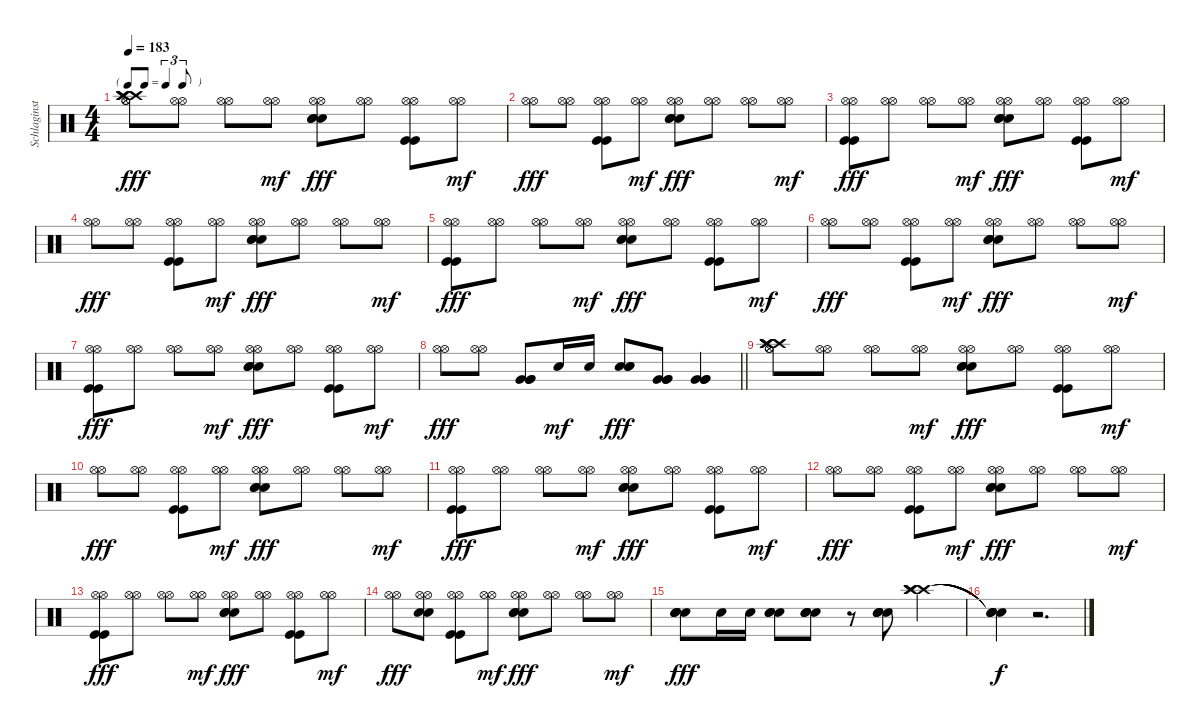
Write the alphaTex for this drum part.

\track ("Schlaginstrumente - Auswahl" "Schlaginst") {instrument percussion}
\staff {score}
\articulation defaults
\ts (4 4)
\tf triplet8th
\tempo 183
\clef neutral
\ks c
("Hi-Hat (open)" "Hi-Hat (open)" "Crash high (hit)" "Crash high (hit)" "Crash high (hit)" "Crash high (hit)").8{dy fff} ("Hi-Hat (open)" "Hi-Hat (open)").8 ("Hi-Hat (open)" "Hi-Hat (open)").8 ("Hi-Hat (open)" "Hi-Hat (open)").8{dy mf} ("Hi-Hat (open)" "Hi-Hat (open)" "Snare (hit) 2" "Snare (hit) 2" "Snare (hit) 2").8{dy fff} ("Hi-Hat (open)" "Hi-Hat (open)").8 ("Hi-Hat (open)" "Hi-Hat (open)" "Kick (hit)" "Kick (hit)").8 ("Hi-Hat (open)" "Hi-Hat (open)").8{dy mf} |
("Hi-Hat (open)" "Hi-Hat (open)").8{dy fff} ("Hi-Hat (open)" "Hi-Hat (open)").8 ("Hi-Hat (open)" "Hi-Hat (open)" "Kick (hit)" "Kick (hit)").8 ("Hi-Hat (open)" "Hi-Hat (open)").8{dy mf} ("Hi-Hat (open)" "Hi-Hat (open)" "Snare (hit) 2" "Snare (hit) 2" "Snare (hit) 2").8{dy fff} ("Hi-Hat (open)" "Hi-Hat (open)").8 ("Hi-Hat (open)" "Hi-Hat (open)").8 ("Hi-Hat (open)" "Hi-Hat (open)").8{dy mf} |
("Hi-Hat (open)" "Hi-Hat (open)" "Kick (hit)" "Kick (hit)").8{dy fff} ("Hi-Hat (open)" "Hi-Hat (open)").8 ("Hi-Hat (open)" "Hi-Hat (open)").8 ("Hi-Hat (open)" "Hi-Hat (open)").8{dy mf} ("Hi-Hat (open)" "Hi-Hat (open)" "Snare (hit) 2" "Snare (hit) 2" "Snare (hit) 2").8{dy fff} ("Hi-Hat (open)" "Hi-Hat (open)").8 ("Hi-Hat (open)" "Hi-Hat (open)" "Kick (hit)" "Kick (hit)").8 ("Hi-Hat (open)" "Hi-Hat (open)").8{dy mf} |
("Hi-Hat (open)" "Hi-Hat (open)").8{dy fff} ("Hi-Hat (open)" "Hi-Hat (open)").8 ("Hi-Hat (open)" "Hi-Hat (open)" "Kick (hit)" "Kick (hit)").8 ("Hi-Hat (open)" "Hi-Hat (open)").8{dy mf} ("Hi-Hat (open)" "Hi-Hat (open)" "Snare (hit) 2" "Snare (hit) 2" "Snare (hit) 2").8{dy fff} ("Hi-Hat (open)" "Hi-Hat (open)").8 ("Hi-Hat (open)" "Hi-Hat (open)").8 ("Hi-Hat (open)" "Hi-Hat (open)").8{dy mf} |
("Hi-Hat (open)" "Hi-Hat (open)" "Kick (hit)" "Kick (hit)").8{dy fff} ("Hi-Hat (open)" "Hi-Hat (open)").8 ("Hi-Hat (open)" "Hi-Hat (open)").8 ("Hi-Hat (open)" "Hi-Hat (open)").8{dy mf} ("Hi-Hat (open)" "Hi-Hat (open)" "Snare (hit) 2" "Snare (hit) 2" "Snare (hit) 2").8{dy fff} ("Hi-Hat (open)" "Hi-Hat (open)").8 ("Hi-Hat (open)" "Hi-Hat (open)" "Kick (hit)" "Kick (hit)").8 ("Hi-Hat (open)" "Hi-Hat (open)").8{dy mf} |
("Hi-Hat (open)" "Hi-Hat (open)").8{dy fff} ("Hi-Hat (open)" "Hi-Hat (open)").8 ("Hi-Hat (open)" "Hi-Hat (open)" "Kick (hit)" "Kick (hit)").8 ("Hi-Hat (open)" "Hi-Hat (open)").8{dy mf} ("Hi-Hat (open)" "Hi-Hat (open)" "Snare (hit) 2" "Snare (hit) 2" "Snare (hit) 2").8{dy fff} ("Hi-Hat (open)" "Hi-Hat (open)").8 ("Hi-Hat (open)" "Hi-Hat (open)").8 ("Hi-Hat (open)" "Hi-Hat (open)").8{dy mf} |
("Hi-Hat (open)" "Hi-Hat (open)" "Kick (hit)" "Kick (hit)").8{dy fff} ("Hi-Hat (open)" "Hi-Hat (open)").8 ("Hi-Hat (open)" "Hi-Hat (open)").8 ("Hi-Hat (open)" "Hi-Hat (open)").8{dy mf} ("Hi-Hat (open)" "Hi-Hat (open)" "Snare (hit) 2" "Snare (hit) 2" "Snare (hit) 2").8{dy fff} ("Hi-Hat (open)" "Hi-Hat (open)").8 ("Hi-Hat (open)" "Hi-Hat (open)" "Kick (hit)" "Kick (hit)").8 ("Hi-Hat (open)" "Hi-Hat (open)").8{dy mf} |
\barLineRight lightlight
("Hi-Hat (open)" "Hi-Hat (open)").8{dy fff} ("Hi-Hat (open)" "Hi-Hat (open)").8 ("Very Low Tom (hit)" "Very Low Tom (hit)" "Very Low Tom (hit)").8 "Snare (hit) 2".16{dy mf} "Snare (hit) 2".16 ("Snare (hit) 2" "Snare (hit) 2" "Snare (hit) 2").8{dy fff} ("Very Low Tom (hit)" "Very Low Tom (hit)" "Very Low Tom (hit)").8 ("Very Low Tom (hit)" "Very Low Tom (hit)" "Very Low Tom (hit)").4 |
("Hi-Hat (open)" "Hi-Hat (open)" "Crash high (hit)" "Crash high (hit)" "Crash high (hit)" "Crash high (hit)").8 ("Hi-Hat (open)" "Hi-Hat (open)").8 ("Hi-Hat (open)" "Hi-Hat (open)").8 ("Hi-Hat (open)" "Hi-Hat (open)").8{dy mf} ("Hi-Hat (open)" "Hi-Hat (open)" "Snare (hit) 2" "Snare (hit) 2" "Snare (hit) 2").8{dy fff} ("Hi-Hat (open)" "Hi-Hat (open)").8 ("Hi-Hat (open)" "Hi-Hat (open)" "Kick (hit)" "Kick (hit)").8 ("Hi-Hat (open)" "Hi-Hat (open)").8{dy mf} |
("Hi-Hat (open)" "Hi-Hat (open)").8{dy fff} ("Hi-Hat (open)" "Hi-Hat (open)").8 ("Hi-Hat (open)" "Hi-Hat (open)" "Kick (hit)" "Kick (hit)").8 ("Hi-Hat (open)" "Hi-Hat (open)").8{dy mf} ("Hi-Hat (open)" "Hi-Hat (open)" "Snare (hit) 2" "Snare (hit) 2" "Snare (hit) 2").8{dy fff} ("Hi-Hat (open)" "Hi-Hat (open)").8 ("Hi-Hat (open)" "Hi-Hat (open)").8 ("Hi-Hat (open)" "Hi-Hat (open)").8{dy mf} |
("Hi-Hat (open)" "Hi-Hat (open)" "Kick (hit)" "Kick (hit)").8{dy fff} ("Hi-Hat (open)" "Hi-Hat (open)").8 ("Hi-Hat (open)" "Hi-Hat (open)").8 ("Hi-Hat (open)" "Hi-Hat (open)").8{dy mf} ("Hi-Hat (open)" "Hi-Hat (open)" "Snare (hit) 2" "Snare (hit) 2" "Snare (hit) 2").8{dy fff} ("Hi-Hat (open)" "Hi-Hat (open)").8 ("Hi-Hat (open)" "Hi-Hat (open)" "Kick (hit)" "Kick (hit)").8 ("Hi-Hat (open)" "Hi-Hat (open)").8{dy mf} |
("Hi-Hat (open)" "Hi-Hat (open)").8{dy fff} ("Hi-Hat (open)" "Hi-Hat (open)").8 ("Hi-Hat (open)" "Hi-Hat (open)" "Kick (hit)" "Kick (hit)").8 ("Hi-Hat (open)" "Hi-Hat (open)").8{dy mf} ("Hi-Hat (open)" "Hi-Hat (open)" "Snare (hit) 2" "Snare (hit) 2" "Snare (hit) 2").8{dy fff} ("Hi-Hat (open)" "Hi-Hat (open)").8 ("Hi-Hat (open)" "Hi-Hat (open)").8 ("Hi-Hat (open)" "Hi-Hat (open)").8{dy mf} |
("Hi-Hat (open)" "Hi-Hat (open)" "Kick (hit)" "Kick (hit)").8{dy fff} ("Hi-Hat (open)" "Hi-Hat (open)").8 ("Hi-Hat (open)" "Hi-Hat (open)").8 ("Hi-Hat (open)" "Hi-Hat (open)").8{dy mf} ("Hi-Hat (open)" "Hi-Hat (open)" "Snare (hit) 2" "Snare (hit) 2" "Snare (hit) 2").8{dy fff} ("Hi-Hat (open)" "Hi-Hat (open)").8 ("Hi-Hat (open)" "Hi-Hat (open)" "Kick (hit)" "Kick (hit)").8 ("Hi-Hat (open)" "Hi-Hat (open)").8{dy mf} |
("Hi-Hat (open)" "Hi-Hat (open)").8{dy fff} ("Hi-Hat (open)" "Hi-Hat (open)" "Snare (hit) 2" "Snare (hit) 2").8 ("Hi-Hat (open)" "Hi-Hat (open)" "Kick (hit)" "Kick (hit)").8 ("Hi-Hat (open)" "Hi-Hat (open)").8{dy mf} ("Hi-Hat (open)" "Hi-Hat (open)" "Snare (hit) 2" "Snare (hit) 2" "Snare (hit) 2").8{dy fff} ("Hi-Hat (open)" "Hi-Hat (open)").8 ("Hi-Hat (open)" "Hi-Hat (open)").8 ("Hi-Hat (open)" "Hi-Hat (open)").8{dy mf} |
("Snare (hit) 2" "Snare (hit) 2" "Snare (hit) 2" "Snare (hit) 2").8{dy fff} "Snare (hit) 2".16 "Snare (hit) 2".16 ("Snare (hit) 2" "Snare (hit) 2" "Snare (hit) 2").8 ("Snare (hit) 2" "Snare (hit) 2" "Snare (hit) 2" "Snare (hit) 2").8 r.8 ("Snare (hit) 2" "Snare (hit) 2" "Snare (hit) 2" "Snare (hit) 2").8 ("Crash high (hit)" "Crash high (hit)" "Crash high (hit)" "Crash high (hit)").4 |
("Snare (hit)"{t} "Snare (hit)"{t} "Snare (hit)"{t} "Snare (hit)"{t}).4{dy f} r.2{d}
